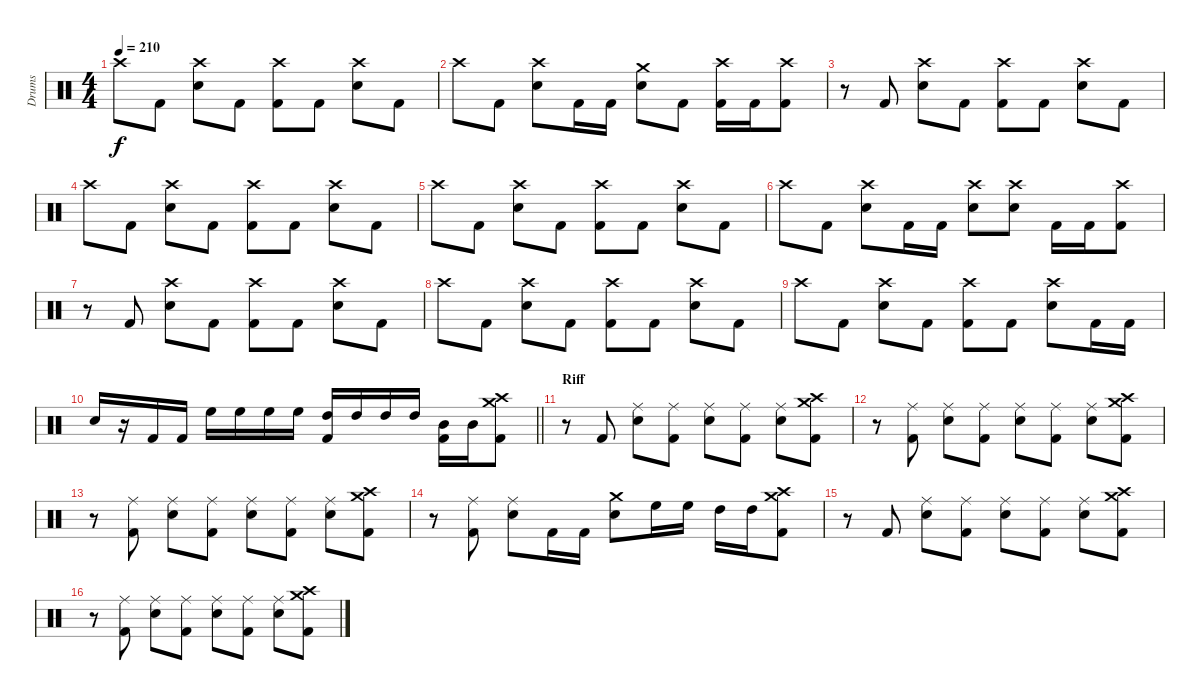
\track ("Drums" "Drums") {instrument percussion}
\staff {score}
\articulation defaults
\ts (4 4)
\tempo 210
\clef neutral
\ks c "Crash high (hit)".8{dy f} "Kick (hit) 2".8
("Crash high (hit)" "Electric Snare (hit)").8 "Kick (hit) 2".8 ("Crash high (hit)" "Kick (hit) 2").8 "Kick (hit) 2".8 ("Crash high (hit)" "Electric Snare (hit)").8 "Kick (hit) 2".8 |
"Crash high (hit)".8 "Kick (hit) 2".8 ("Crash high (hit)" "Electric Snare (hit)").8 "Kick (hit) 2".16 "Kick (hit) 2".16 ("Crash medium (hit)" "Electric Snare (hit)").8 "Kick (hit) 2".8 ("Crash high (hit)" "Kick (hit) 2").16 "Kick (hit) 2".16 ("Crash high (hit)" "Kick (hit) 2").8 |
r.8 "Kick (hit) 2".8 ("Crash high (hit)" "Electric Snare (hit)").8 "Kick (hit) 2".8 ("Crash high (hit)" "Kick (hit) 2").8 "Kick (hit) 2".8 ("Crash high (hit)" "Electric Snare (hit)").8 "Kick (hit) 2".8 |
"Crash high (hit)".8 "Kick (hit) 2".8 ("Crash high (hit)" "Electric Snare (hit)").8 "Kick (hit) 2".8 ("Crash high (hit)" "Kick (hit) 2").8 "Kick (hit) 2".8 ("Crash high (hit)" "Electric Snare (hit)").8 "Kick (hit) 2".8 |
"Crash high (hit)".8 "Kick (hit) 2".8 ("Crash high (hit)" "Electric Snare (hit)").8 "Kick (hit) 2".8 ("Crash high (hit)" "Kick (hit) 2").8 "Kick (hit) 2".8 ("Crash high (hit)" "Electric Snare (hit)").8 "Kick (hit) 2".8 |
"Crash high (hit)".8 "Kick (hit) 2".8 ("Crash high (hit)" "Electric Snare (hit)").8 "Kick (hit) 2".16 "Kick (hit) 2".16 ("Crash high (hit)" "Electric Snare (hit)").8 ("Crash high (hit)" "Electric Snare (hit)").8 "Kick (hit) 2".16 "Kick (hit) 2".16 ("Crash high (hit)" "Kick (hit) 2").8 |
r.8 "Kick (hit) 2".8 ("Crash high (hit)" "Electric Snare (hit)").8 "Kick (hit) 2".8 ("Crash high (hit)" "Kick (hit) 2").8 "Kick (hit) 2".8 ("Crash high (hit)" "Electric Snare (hit)").8 "Kick (hit) 2".8 |
"Crash high (hit)".8 "Kick (hit) 2".8 ("Crash high (hit)" "Electric Snare (hit)").8 "Kick (hit) 2".8 ("Crash high (hit)" "Kick (hit) 2").8 "Kick (hit) 2".8 ("Crash high (hit)" "Electric Snare (hit)").8 "Kick (hit) 2".8 |
"Crash high (hit)".8 "Kick (hit) 2".8 ("Crash high (hit)" "Electric Snare (hit)").8 "Kick (hit) 2".8 ("Crash high (hit)" "Kick (hit) 2").8 "Kick (hit) 2".8 ("Crash high (hit)" "Electric Snare (hit)").8 "Kick (hit) 2".16 "Kick (hit) 2".16 |
\barLineRight lightlight "Electric Snare (hit)".16
r.16 "Kick (hit) 2".16 "Kick (hit) 2".16 "High Floor Tom (hit)".16 "High Floor Tom (hit)".16 "High Floor Tom (hit)".16 "High Floor Tom (hit)".16 ("High Tom (hit)" "Kick (hit) 2").16 "High Tom (hit)".16 "High Tom (hit)".16 "High Tom (hit)".16 ("Mid Tom (hit)" "Kick (hit) 2").16 "Mid Tom (hit)".16 ("Crash high (hit)" "Crash medium (hit)" "Kick (hit) 2").8 |
\section ("" "Riff")
r.8 "Kick (hit) 2".8 ("Ride (middle)" "Electric Snare (hit)").8 ("Ride (middle)" "Kick (hit) 2").8 ("Ride (middle)" "Electric Snare (hit)").8 ("Ride (middle)" "Kick (hit) 2").8 ("Ride (middle)" "Electric Snare (hit)").8 ("Crash high (hit)" "Crash medium (hit)" "Kick (hit) 2").8 |
r.8 ("Ride (middle)" "Kick (hit) 2").8 ("Ride (middle)" "Electric Snare (hit)").8 ("Ride (middle)" "Kick (hit) 2").8 ("Ride (middle)" "Electric Snare (hit)").8 ("Ride (middle)" "Kick (hit) 2").8 ("Ride (middle)" "Electric Snare (hit)").8 ("Crash high (hit)" "Crash medium (hit)" "Kick (hit) 2").8 |
r.8 ("Ride (middle)" "Kick (hit) 2").8 ("Ride (middle)" "Electric Snare (hit)").8 ("Ride (middle)" "Kick (hit) 2").8 ("Ride (middle)" "Electric Snare (hit)").8 ("Ride (middle)" "Kick (hit) 2").8 ("Ride (middle)" "Electric Snare (hit)").8 ("Crash high (hit)" "Crash medium (hit)" "Kick (hit) 2").8 |
r.8 ("Ride (middle)" "Kick (hit) 2").8 ("Ride (middle)" "Electric Snare (hit)").8 "Kick (hit) 2".16 "Kick (hit) 2".16 ("Crash medium (hit)" "Electric Snare (hit)").8 "High Floor Tom (hit)".16 "High Floor Tom (hit)".16 "High Tom (hit)".16 "High Tom (hit)".16 ("Crash high (hit)" "Crash medium (hit)" "Kick (hit) 2").8 |
r.8 "Kick (hit) 2".8 ("Ride (middle)" "Electric Snare (hit)").8 ("Ride (middle)" "Kick (hit) 2").8 ("Ride (middle)" "Electric Snare (hit)").8 ("Ride (middle)" "Kick (hit) 2").8 ("Ride (middle)" "Electric Snare (hit)").8 ("Crash high (hit)" "Crash medium (hit)" "Kick (hit) 2").8 |
r.8 ("Ride (middle)" "Kick (hit) 2").8 ("Ride (middle)" "Electric Snare (hit)").8 ("Ride (middle)" "Kick (hit) 2").8 ("Ride (middle)" "Electric Snare (hit)").8 ("Ride (middle)" "Kick (hit) 2").8 ("Ride (middle)" "Electric Snare (hit)").8 ("Crash high (hit)" "Crash medium (hit)" "Kick (hit) 2").8
